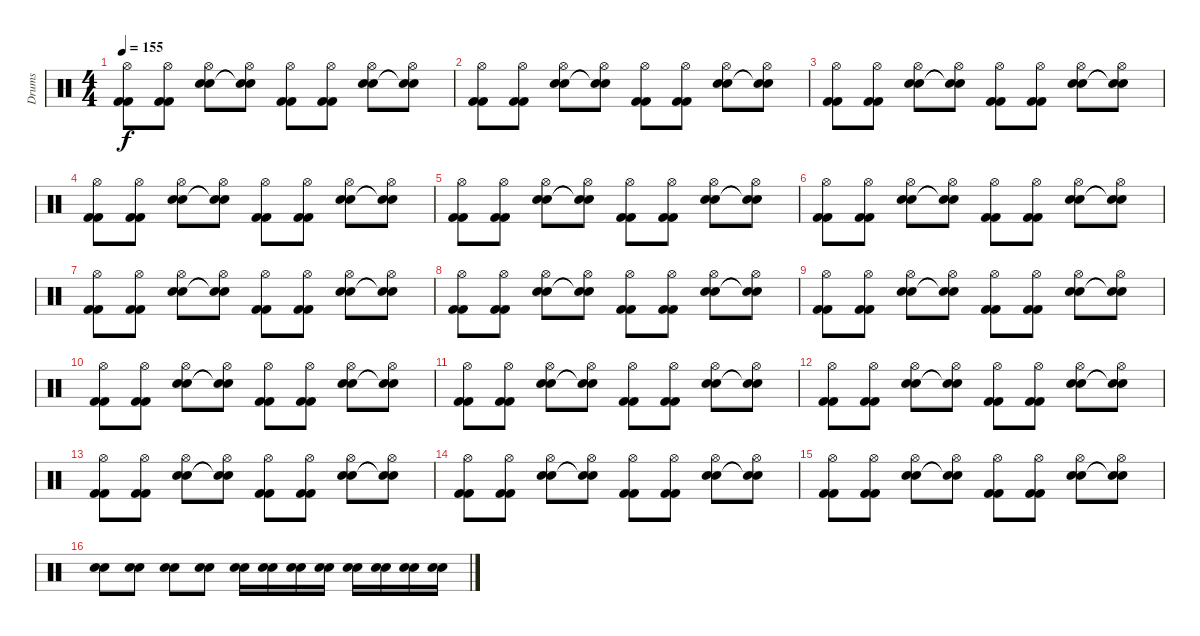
\track ("Drums" "Drums") {instrument percussion}
\staff {score}
\articulation defaults
\ts (4 4)
\tempo 155
\clef neutral
\ks c
("Hi-Hat (open)" "Kick (hit) 2" "Kick (hit) 2").8{dy f} ("Hi-Hat (open)" "Kick (hit) 2" "Kick (hit) 2").8 ("Hi-Hat (open)" "Electric Snare (hit)" "Electric Snare (hit)").8 ("Hi-Hat (open)" "Snare (hit)"{t} "Snare (hit)"{t}).8 ("Hi-Hat (open)" "Kick (hit) 2" "Kick (hit) 2").8 ("Hi-Hat (open)" "Kick (hit) 2" "Kick (hit) 2").8 ("Hi-Hat (open)" "Electric Snare (hit)" "Electric Snare (hit)").8 ("Hi-Hat (open)" "Snare (hit)"{t} "Snare (hit)"{t}).8 |
("Hi-Hat (open)" "Kick (hit) 2" "Kick (hit) 2").8 ("Hi-Hat (open)" "Kick (hit) 2" "Kick (hit) 2").8 ("Hi-Hat (open)" "Electric Snare (hit)" "Electric Snare (hit)").8 ("Hi-Hat (open)" "Snare (hit)"{t} "Snare (hit)"{t}).8 ("Hi-Hat (open)" "Kick (hit) 2" "Kick (hit) 2").8 ("Hi-Hat (open)" "Kick (hit) 2" "Kick (hit) 2").8 ("Hi-Hat (open)" "Electric Snare (hit)" "Electric Snare (hit)").8 ("Hi-Hat (open)" "Snare (hit)"{t} "Snare (hit)"{t}).8 |
("Hi-Hat (open)" "Kick (hit) 2" "Kick (hit) 2").8 ("Hi-Hat (open)" "Kick (hit) 2" "Kick (hit) 2").8 ("Hi-Hat (open)" "Electric Snare (hit)" "Electric Snare (hit)").8 ("Hi-Hat (open)" "Snare (hit)"{t} "Snare (hit)"{t}).8 ("Hi-Hat (open)" "Kick (hit) 2" "Kick (hit) 2").8 ("Hi-Hat (open)" "Kick (hit) 2" "Kick (hit) 2").8 ("Hi-Hat (open)" "Electric Snare (hit)" "Electric Snare (hit)").8 ("Hi-Hat (open)" "Snare (hit)"{t} "Snare (hit)"{t}).8 |
("Hi-Hat (open)" "Kick (hit) 2" "Kick (hit) 2").8 ("Hi-Hat (open)" "Kick (hit) 2" "Kick (hit) 2").8 ("Hi-Hat (open)" "Electric Snare (hit)" "Electric Snare (hit)").8 ("Hi-Hat (open)" "Snare (hit)"{t} "Snare (hit)"{t}).8 ("Hi-Hat (open)" "Kick (hit) 2" "Kick (hit) 2").8 ("Hi-Hat (open)" "Kick (hit) 2" "Kick (hit) 2").8 ("Hi-Hat (open)" "Electric Snare (hit)" "Electric Snare (hit)").8 ("Hi-Hat (open)" "Snare (hit)"{t} "Snare (hit)"{t}).8 |
("Hi-Hat (open)" "Kick (hit) 2" "Kick (hit) 2").8 ("Hi-Hat (open)" "Kick (hit) 2" "Kick (hit) 2").8 ("Hi-Hat (open)" "Electric Snare (hit)" "Electric Snare (hit)").8 ("Hi-Hat (open)" "Snare (hit)"{t} "Snare (hit)"{t}).8 ("Hi-Hat (open)" "Kick (hit) 2" "Kick (hit) 2").8 ("Hi-Hat (open)" "Kick (hit) 2" "Kick (hit) 2").8 ("Hi-Hat (open)" "Electric Snare (hit)" "Electric Snare (hit)").8 ("Hi-Hat (open)" "Snare (hit)"{t} "Snare (hit)"{t}).8 |
("Hi-Hat (open)" "Kick (hit) 2" "Kick (hit) 2").8 ("Hi-Hat (open)" "Kick (hit) 2" "Kick (hit) 2").8 ("Hi-Hat (open)" "Electric Snare (hit)" "Electric Snare (hit)").8 ("Hi-Hat (open)" "Snare (hit)"{t} "Snare (hit)"{t}).8 ("Hi-Hat (open)" "Kick (hit) 2" "Kick (hit) 2").8 ("Hi-Hat (open)" "Kick (hit) 2" "Kick (hit) 2").8 ("Hi-Hat (open)" "Electric Snare (hit)" "Electric Snare (hit)").8 ("Hi-Hat (open)" "Snare (hit)"{t} "Snare (hit)"{t}).8 |
("Hi-Hat (open)" "Kick (hit) 2" "Kick (hit) 2").8 ("Hi-Hat (open)" "Kick (hit) 2" "Kick (hit) 2").8 ("Hi-Hat (open)" "Electric Snare (hit)" "Electric Snare (hit)").8 ("Hi-Hat (open)" "Snare (hit)"{t} "Snare (hit)"{t}).8 ("Hi-Hat (open)" "Kick (hit) 2" "Kick (hit) 2").8 ("Hi-Hat (open)" "Kick (hit) 2" "Kick (hit) 2").8 ("Hi-Hat (open)" "Electric Snare (hit)" "Electric Snare (hit)").8 ("Hi-Hat (open)" "Snare (hit)"{t} "Snare (hit)"{t}).8 |
("Hi-Hat (open)" "Kick (hit) 2" "Kick (hit) 2").8 ("Hi-Hat (open)" "Kick (hit) 2" "Kick (hit) 2").8 ("Hi-Hat (open)" "Electric Snare (hit)" "Electric Snare (hit)").8 ("Hi-Hat (open)" "Snare (hit)"{t} "Snare (hit)"{t}).8 ("Hi-Hat (open)" "Kick (hit) 2" "Kick (hit) 2").8 ("Hi-Hat (open)" "Kick (hit) 2" "Kick (hit) 2").8 ("Hi-Hat (open)" "Electric Snare (hit)" "Electric Snare (hit)").8 ("Hi-Hat (open)" "Snare (hit)"{t} "Snare (hit)"{t}).8 |
("Hi-Hat (open)" "Kick (hit) 2" "Kick (hit) 2").8 ("Hi-Hat (open)" "Kick (hit) 2" "Kick (hit) 2").8 ("Hi-Hat (open)" "Electric Snare (hit)" "Electric Snare (hit)").8 ("Hi-Hat (open)" "Snare (hit)"{t} "Snare (hit)"{t}).8 ("Hi-Hat (open)" "Kick (hit) 2" "Kick (hit) 2").8 ("Hi-Hat (open)" "Kick (hit) 2" "Kick (hit) 2").8 ("Hi-Hat (open)" "Electric Snare (hit)" "Electric Snare (hit)").8 ("Hi-Hat (open)" "Snare (hit)"{t} "Snare (hit)"{t}).8 |
("Hi-Hat (open)" "Kick (hit) 2" "Kick (hit) 2").8 ("Hi-Hat (open)" "Kick (hit) 2" "Kick (hit) 2").8 ("Hi-Hat (open)" "Electric Snare (hit)" "Electric Snare (hit)").8 ("Hi-Hat (open)" "Snare (hit)"{t} "Snare (hit)"{t}).8 ("Hi-Hat (open)" "Kick (hit) 2" "Kick (hit) 2").8 ("Hi-Hat (open)" "Kick (hit) 2" "Kick (hit) 2").8 ("Hi-Hat (open)" "Electric Snare (hit)" "Electric Snare (hit)").8 ("Hi-Hat (open)" "Snare (hit)"{t} "Snare (hit)"{t}).8 |
("Hi-Hat (open)" "Kick (hit) 2" "Kick (hit) 2").8 ("Hi-Hat (open)" "Kick (hit) 2" "Kick (hit) 2").8 ("Hi-Hat (open)" "Electric Snare (hit)" "Electric Snare (hit)").8 ("Hi-Hat (open)" "Snare (hit)"{t} "Snare (hit)"{t}).8 ("Hi-Hat (open)" "Kick (hit) 2" "Kick (hit) 2").8 ("Hi-Hat (open)" "Kick (hit) 2" "Kick (hit) 2").8 ("Hi-Hat (open)" "Electric Snare (hit)" "Electric Snare (hit)").8 ("Hi-Hat (open)" "Snare (hit)"{t} "Snare (hit)"{t}).8 |
("Hi-Hat (open)" "Kick (hit) 2" "Kick (hit) 2").8 ("Hi-Hat (open)" "Kick (hit) 2" "Kick (hit) 2").8 ("Hi-Hat (open)" "Electric Snare (hit)" "Electric Snare (hit)").8 ("Hi-Hat (open)" "Snare (hit)"{t} "Snare (hit)"{t}).8 ("Hi-Hat (open)" "Kick (hit) 2" "Kick (hit) 2").8 ("Hi-Hat (open)" "Kick (hit) 2" "Kick (hit) 2").8 ("Hi-Hat (open)" "Electric Snare (hit)" "Electric Snare (hit)").8 ("Hi-Hat (open)" "Snare (hit)"{t} "Snare (hit)"{t}).8 |
("Hi-Hat (open)" "Kick (hit) 2" "Kick (hit) 2").8 ("Hi-Hat (open)" "Kick (hit) 2" "Kick (hit) 2").8 ("Hi-Hat (open)" "Electric Snare (hit)" "Electric Snare (hit)").8 ("Hi-Hat (open)" "Snare (hit)"{t} "Snare (hit)"{t}).8 ("Hi-Hat (open)" "Kick (hit) 2" "Kick (hit) 2").8 ("Hi-Hat (open)" "Kick (hit) 2" "Kick (hit) 2").8 ("Hi-Hat (open)" "Electric Snare (hit)" "Electric Snare (hit)").8 ("Hi-Hat (open)" "Snare (hit)"{t} "Snare (hit)"{t}).8 |
("Hi-Hat (open)" "Kick (hit) 2" "Kick (hit) 2").8 ("Hi-Hat (open)" "Kick (hit) 2" "Kick (hit) 2").8 ("Hi-Hat (open)" "Electric Snare (hit)" "Electric Snare (hit)").8 ("Hi-Hat (open)" "Snare (hit)"{t} "Snare (hit)"{t}).8 ("Hi-Hat (open)" "Kick (hit) 2" "Kick (hit) 2").8 ("Hi-Hat (open)" "Kick (hit) 2" "Kick (hit) 2").8 ("Hi-Hat (open)" "Electric Snare (hit)" "Electric Snare (hit)").8 ("Hi-Hat (open)" "Snare (hit)"{t} "Snare (hit)"{t}).8 |
("Hi-Hat (open)" "Kick (hit) 2" "Kick (hit) 2").8 ("Hi-Hat (open)" "Kick (hit) 2" "Kick (hit) 2").8 ("Hi-Hat (open)" "Electric Snare (hit)" "Electric Snare (hit)").8 ("Hi-Hat (open)" "Snare (hit)"{t} "Snare (hit)"{t}).8 ("Hi-Hat (open)" "Kick (hit) 2" "Kick (hit) 2").8 ("Hi-Hat (open)" "Kick (hit) 2" "Kick (hit) 2").8 ("Hi-Hat (open)" "Electric Snare (hit)" "Electric Snare (hit)").8 ("Hi-Hat (open)" "Snare (hit)"{t} "Snare (hit)"{t}).8 |
("Electric Snare (hit)" "Electric Snare (hit)").8 ("Electric Snare (hit)" "Electric Snare (hit)").8 ("Electric Snare (hit)" "Electric Snare (hit)").8 ("Electric Snare (hit)" "Electric Snare (hit)").8 ("Electric Snare (hit)" "Electric Snare (hit)").16 ("Electric Snare (hit)" "Electric Snare (hit)").16 ("Electric Snare (hit)" "Electric Snare (hit)").16 ("Electric Snare (hit)" "Electric Snare (hit)").16 ("Electric Snare (hit)" "Electric Snare (hit)").16 ("Electric Snare (hit)" "Electric Snare (hit)").16 ("Electric Snare (hit)" "Electric Snare (hit)").16 ("Electric Snare (hit)" "Electric Snare (hit)").16
